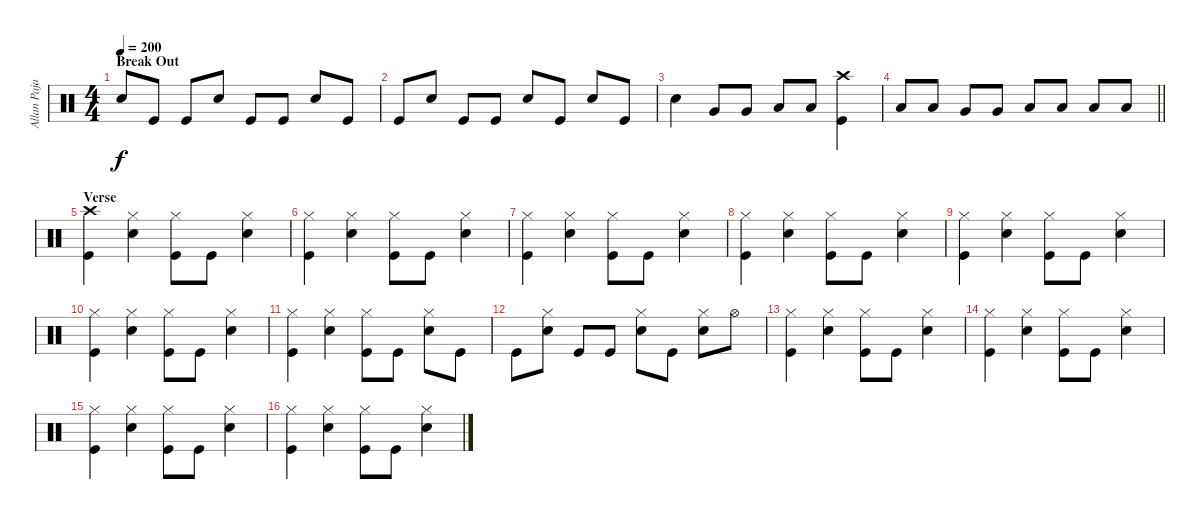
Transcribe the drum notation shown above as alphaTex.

\track ("Allan Pajarin (Drums)" "Allan Paja") {instrument percussion}
\staff {score}
\articulation defaults
\ts (4 4)
\section ("" "Break Out")
\tempo 200
\clef neutral
\ks c "Electric Snare (hit)".8{dy f} "Kick (hit)".8 "Kick (hit)".8 "Electric Snare (hit)".8 "Kick (hit)".8 "Kick (hit)".8 "Electric Snare (hit)".8 "Kick (hit)".8
|
"Kick (hit)".8 "Electric Snare (hit)".8 "Kick (hit)".8 "Kick (hit)".8 "Electric Snare (hit)".8 "Kick (hit)".8 "Electric Snare (hit)".8 "Kick (hit)".8 |
"Electric Snare (hit)".4 "Very Low Tom (hit)".8 "Very Low Tom (hit)".8 "Low Floor Tom (hit)".8 "Low Floor Tom (hit)".8 ("Crash high (hit)" "Kick (hit)").4 |
\barLineRight lightlight "Low Tom (hit)".8 "Low Tom (hit)".8 "Very Low Tom (hit)".8 "Very Low Tom (hit)".8 "Low Floor Tom (hit)".8 "Low Floor Tom (hit)".8 "Low Floor Tom (hit)".8 "Low Floor Tom (hit)".8
|
\section ("" "Verse")
("Crash high (hit)" "Kick (hit)").4 ("Hi-Hat (closed)" "Electric Snare (hit)").4 ("Hi-Hat (closed)" "Kick (hit)").8 "Kick (hit)".8 ("Hi-Hat (closed)" "Electric Snare (hit)").4 |
("Hi-Hat (closed)" "Kick (hit)").4 ("Hi-Hat (closed)" "Electric Snare (hit)").4 ("Hi-Hat (closed)" "Kick (hit)").8 "Kick (hit)".8 ("Hi-Hat (closed)" "Electric Snare (hit)").4 |
("Hi-Hat (closed)" "Kick (hit)").4 ("Hi-Hat (closed)" "Electric Snare (hit)").4 ("Hi-Hat (closed)" "Kick (hit)").8 "Kick (hit)".8 ("Hi-Hat (closed)" "Electric Snare (hit)").4 |
("Hi-Hat (closed)" "Kick (hit)").4 ("Hi-Hat (closed)" "Electric Snare (hit)").4 ("Hi-Hat (closed)" "Kick (hit)").8 "Kick (hit)".8 ("Hi-Hat (closed)" "Electric Snare (hit)").4 |
("Hi-Hat (closed)" "Kick (hit)").4 ("Hi-Hat (closed)" "Electric Snare (hit)").4 ("Hi-Hat (closed)" "Kick (hit)").8 "Kick (hit)".8 ("Hi-Hat (closed)" "Electric Snare (hit)").4 |
("Hi-Hat (closed)" "Kick (hit)").4 ("Hi-Hat (closed)" "Electric Snare (hit)").4 ("Hi-Hat (closed)" "Kick (hit)").8 "Kick (hit)".8 ("Hi-Hat (closed)" "Electric Snare (hit)").4 |
("Hi-Hat (closed)" "Kick (hit)").4 ("Hi-Hat (closed)" "Electric Snare (hit)").4 ("Hi-Hat (closed)" "Kick (hit)").8 "Kick (hit)".8 ("Hi-Hat (closed)" "Electric Snare (hit)").8 "Kick (hit)".8 |
"Kick (hit)".8 ("Hi-Hat (closed)" "Electric Snare (hit)").8 "Kick (hit)".8 "Kick (hit)".8 ("Hi-Hat (closed)" "Electric Snare (hit)").8 "Kick (hit)".8 ("Hi-Hat (closed)" "Electric Snare (hit)").8 "Hi-Hat (open)".8 |
("Hi-Hat (closed)" "Kick (hit)").4 ("Hi-Hat (closed)" "Electric Snare (hit)").4 ("Hi-Hat (closed)" "Kick (hit)").8 "Kick (hit)".8 ("Hi-Hat (closed)" "Electric Snare (hit)").4 |
("Hi-Hat (closed)" "Kick (hit)").4 ("Hi-Hat (closed)" "Electric Snare (hit)").4 ("Hi-Hat (closed)" "Kick (hit)").8 "Kick (hit)".8 ("Hi-Hat (closed)" "Electric Snare (hit)").4 |
("Hi-Hat (closed)" "Kick (hit)").4 ("Hi-Hat (closed)" "Electric Snare (hit)").4 ("Hi-Hat (closed)" "Kick (hit)").8 "Kick (hit)".8 ("Hi-Hat (closed)" "Electric Snare (hit)").4 |
("Hi-Hat (closed)" "Kick (hit)").4 ("Hi-Hat (closed)" "Electric Snare (hit)").4 ("Hi-Hat (closed)" "Kick (hit)").8 "Kick (hit)".8 ("Hi-Hat (closed)" "Electric Snare (hit)").4
